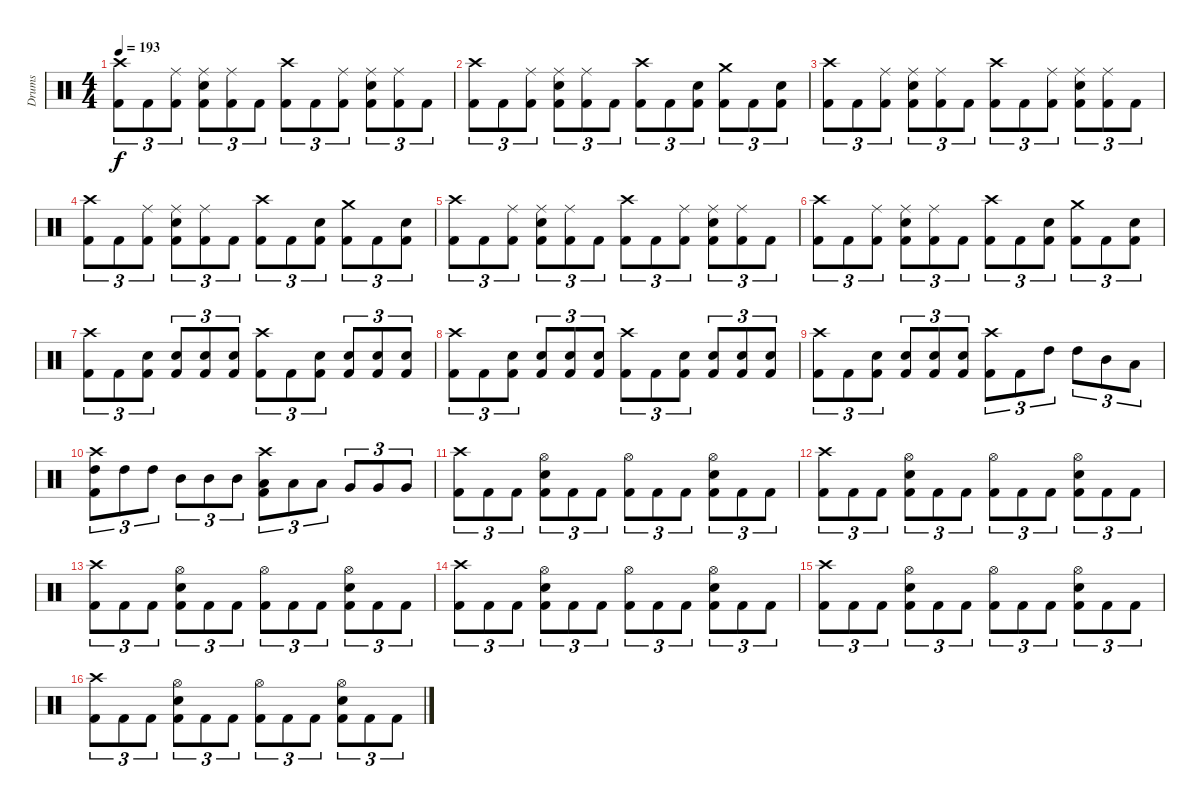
\track ("Drums" "Drums") {instrument percussion}
\staff {score}
\articulation defaults
\ts (4 4)
\tempo 193
\clef neutral
\ks c
("Crash high (hit)" "Kick (hit) 2").8{tu (3 2) dy f} "Kick (hit) 2".8{tu (3 2)} ("Ride (middle)" "Kick (hit) 2").8{tu (3 2)} ("Ride (middle)" "Electric Snare (hit)" "Kick (hit) 2").8{tu (3 2)} ("Ride (middle)" "Kick (hit) 2").8{tu (3 2)} "Kick (hit) 2".8{tu (3 2)} ("Crash high (hit)" "Kick (hit) 2").8{tu (3 2)} "Kick (hit) 2".8{tu (3 2)} ("Ride (middle)" "Kick (hit) 2").8{tu (3 2)} ("Ride (middle)" "Electric Snare (hit)" "Kick (hit) 2").8{tu (3 2)} ("Ride (middle)" "Kick (hit) 2").8{tu (3 2)} "Kick (hit) 2".8{tu (3 2)} |
("Crash high (hit)" "Kick (hit) 2").8{tu (3 2)} "Kick (hit) 2".8{tu (3 2)} ("Ride (middle)" "Kick (hit) 2").8{tu (3 2)} ("Ride (middle)" "Electric Snare (hit)" "Kick (hit) 2").8{tu (3 2)} ("Ride (middle)" "Kick (hit) 2").8{tu (3 2)} "Kick (hit) 2".8{tu (3 2)} ("Crash high (hit)" "Kick (hit) 2").8{tu (3 2)} "Kick (hit) 2".8{tu (3 2)} ("Electric Snare (hit)" "Kick (hit) 2").8{tu (3 2)} ("Crash medium (hit)" "Kick (hit) 2").8{tu (3 2)} "Kick (hit) 2".8{tu (3 2)} ("Electric Snare (hit)" "Kick (hit) 2").8{tu (3 2)} |
("Crash high (hit)" "Kick (hit) 2").8{tu (3 2)} "Kick (hit) 2".8{tu (3 2)} ("Ride (middle)" "Kick (hit) 2").8{tu (3 2)} ("Ride (middle)" "Electric Snare (hit)" "Kick (hit) 2").8{tu (3 2)} ("Ride (middle)" "Kick (hit) 2").8{tu (3 2)} "Kick (hit) 2".8{tu (3 2)} ("Crash high (hit)" "Kick (hit) 2").8{tu (3 2)} "Kick (hit) 2".8{tu (3 2)} ("Ride (middle)" "Kick (hit) 2").8{tu (3 2)} ("Ride (middle)" "Electric Snare (hit)" "Kick (hit) 2").8{tu (3 2)} ("Ride (middle)" "Kick (hit) 2").8{tu (3 2)} "Kick (hit) 2".8{tu (3 2)} |
("Crash high (hit)" "Kick (hit) 2").8{tu (3 2)} "Kick (hit) 2".8{tu (3 2)} ("Ride (middle)" "Kick (hit) 2").8{tu (3 2)} ("Ride (middle)" "Electric Snare (hit)" "Kick (hit) 2").8{tu (3 2)} ("Ride (middle)" "Kick (hit) 2").8{tu (3 2)} "Kick (hit) 2".8{tu (3 2)} ("Crash high (hit)" "Kick (hit) 2").8{tu (3 2)} "Kick (hit) 2".8{tu (3 2)} ("Electric Snare (hit)" "Kick (hit) 2").8{tu (3 2)} ("Crash medium (hit)" "Kick (hit) 2").8{tu (3 2)} "Kick (hit) 2".8{tu (3 2)} ("Electric Snare (hit)" "Kick (hit) 2").8{tu (3 2)} |
("Crash high (hit)" "Kick (hit) 2").8{tu (3 2)} "Kick (hit) 2".8{tu (3 2)} ("Ride (middle)" "Kick (hit) 2").8{tu (3 2)} ("Ride (middle)" "Electric Snare (hit)" "Kick (hit) 2").8{tu (3 2)} ("Ride (middle)" "Kick (hit) 2").8{tu (3 2)} "Kick (hit) 2".8{tu (3 2)} ("Crash high (hit)" "Kick (hit) 2").8{tu (3 2)} "Kick (hit) 2".8{tu (3 2)} ("Ride (middle)" "Kick (hit) 2").8{tu (3 2)} ("Ride (middle)" "Electric Snare (hit)" "Kick (hit) 2").8{tu (3 2)} ("Ride (middle)" "Kick (hit) 2").8{tu (3 2)} "Kick (hit) 2".8{tu (3 2)} |
("Crash high (hit)" "Kick (hit) 2").8{tu (3 2)} "Kick (hit) 2".8{tu (3 2)} ("Ride (middle)" "Kick (hit) 2").8{tu (3 2)} ("Ride (middle)" "Electric Snare (hit)" "Kick (hit) 2").8{tu (3 2)} ("Ride (middle)" "Kick (hit) 2").8{tu (3 2)} "Kick (hit) 2".8{tu (3 2)} ("Crash high (hit)" "Kick (hit) 2").8{tu (3 2)} "Kick (hit) 2".8{tu (3 2)} ("Electric Snare (hit)" "Kick (hit) 2").8{tu (3 2)} ("Crash medium (hit)" "Kick (hit) 2").8{tu (3 2)} "Kick (hit) 2".8{tu (3 2)} ("Electric Snare (hit)" "Kick (hit) 2").8{tu (3 2)} |
("Crash high (hit)" "Kick (hit) 2").8{tu (3 2)} "Kick (hit) 2".8{tu (3 2)} ("Electric Snare (hit)" "Kick (hit) 2").8{tu (3 2)} ("Electric Snare (hit)" "Kick (hit) 2").8{tu (3 2)} ("Electric Snare (hit)" "Kick (hit) 2").8{tu (3 2)} ("Electric Snare (hit)" "Kick (hit) 2").8{tu (3 2)} ("Crash high (hit)" "Kick (hit) 2").8{tu (3 2)} "Kick (hit) 2".8{tu (3 2)} ("Electric Snare (hit)" "Kick (hit) 2").8{tu (3 2)} ("Electric Snare (hit)" "Kick (hit) 2").8{tu (3 2)} ("Electric Snare (hit)" "Kick (hit) 2").8{tu (3 2)} ("Electric Snare (hit)" "Kick (hit) 2").8{tu (3 2)} |
("Crash high (hit)" "Kick (hit) 2").8{tu (3 2)} "Kick (hit) 2".8{tu (3 2)} ("Electric Snare (hit)" "Kick (hit) 2").8{tu (3 2)} ("Electric Snare (hit)" "Kick (hit) 2").8{tu (3 2)} ("Electric Snare (hit)" "Kick (hit) 2").8{tu (3 2)} ("Electric Snare (hit)" "Kick (hit) 2").8{tu (3 2)} ("Crash high (hit)" "Kick (hit) 2").8{tu (3 2)} "Kick (hit) 2".8{tu (3 2)} ("Electric Snare (hit)" "Kick (hit) 2").8{tu (3 2)} ("Electric Snare (hit)" "Kick (hit) 2").8{tu (3 2)} ("Electric Snare (hit)" "Kick (hit) 2").8{tu (3 2)} ("Electric Snare (hit)" "Kick (hit) 2").8{tu (3 2)} |
("Crash high (hit)" "Kick (hit) 2").8{tu (3 2)} "Kick (hit) 2".8{tu (3 2)} ("Electric Snare (hit)" "Kick (hit) 2").8{tu (3 2)} ("Electric Snare (hit)" "Kick (hit) 2").8{tu (3 2)} ("Electric Snare (hit)" "Kick (hit) 2").8{tu (3 2)} ("Electric Snare (hit)" "Kick (hit) 2").8{tu (3 2)} ("Crash high (hit)" "Kick (hit) 2").8{tu (3 2)} "Kick (hit) 2".8{tu (3 2)} "High Tom (hit)".8{tu (3 2)} "High Tom (hit)".8{tu (3 2)} "Mid Tom (hit)".8{tu (3 2)} "Low Tom (hit)".8{tu (3 2)} |
("Crash high (hit)" "High Tom (hit)" "Kick (hit) 2").8{tu (3 2)} "High Tom (hit)".8{tu (3 2)} "High Tom (hit)".8{tu (3 2)} "Mid Tom (hit)".8{tu (3 2)} "Mid Tom (hit)".8{tu (3 2)} "Mid Tom (hit)".8{tu (3 2)} ("Crash high (hit)" "Low Tom (hit)" "Kick (hit) 2").8{tu (3 2)} "Low Tom (hit)".8{tu (3 2)} "Low Tom (hit)".8{tu (3 2)} "Very Low Tom (hit)".8{tu (3 2)} "Very Low Tom (hit)".8{tu (3 2)} "Very Low Tom (hit)".8{tu (3 2)} |
("Crash high (hit)" "Kick (hit) 2").8{tu (3 2)} "Kick (hit) 2".8{tu (3 2)} "Kick (hit) 2".8{tu (3 2)} ("Hi-Hat (open)" "Electric Snare (hit)" "Kick (hit) 2").8{tu (3 2)} "Kick (hit) 2".8{tu (3 2)} "Kick (hit) 2".8{tu (3 2)} ("Hi-Hat (open)" "Kick (hit) 2").8{tu (3 2)} "Kick (hit) 2".8{tu (3 2)} "Kick (hit) 2".8{tu (3 2)} ("Hi-Hat (open)" "Electric Snare (hit)" "Kick (hit) 2").8{tu (3 2)} "Kick (hit) 2".8{tu (3 2)} "Kick (hit) 2".8{tu (3 2)} |
("Crash high (hit)" "Kick (hit) 2").8{tu (3 2)} "Kick (hit) 2".8{tu (3 2)} "Kick (hit) 2".8{tu (3 2)} ("Hi-Hat (open)" "Electric Snare (hit)" "Kick (hit) 2").8{tu (3 2)} "Kick (hit) 2".8{tu (3 2)} "Kick (hit) 2".8{tu (3 2)} ("Hi-Hat (open)" "Kick (hit) 2").8{tu (3 2)} "Kick (hit) 2".8{tu (3 2)} "Kick (hit) 2".8{tu (3 2)} ("Hi-Hat (open)" "Electric Snare (hit)" "Kick (hit) 2").8{tu (3 2)} "Kick (hit) 2".8{tu (3 2)} "Kick (hit) 2".8{tu (3 2)} |
("Crash high (hit)" "Kick (hit) 2").8{tu (3 2)} "Kick (hit) 2".8{tu (3 2)} "Kick (hit) 2".8{tu (3 2)} ("Hi-Hat (open)" "Electric Snare (hit)" "Kick (hit) 2").8{tu (3 2)} "Kick (hit) 2".8{tu (3 2)} "Kick (hit) 2".8{tu (3 2)} ("Hi-Hat (open)" "Kick (hit) 2").8{tu (3 2)} "Kick (hit) 2".8{tu (3 2)} "Kick (hit) 2".8{tu (3 2)} ("Hi-Hat (open)" "Electric Snare (hit)" "Kick (hit) 2").8{tu (3 2)} "Kick (hit) 2".8{tu (3 2)} "Kick (hit) 2".8{tu (3 2)} |
("Crash high (hit)" "Kick (hit) 2").8{tu (3 2)} "Kick (hit) 2".8{tu (3 2)} "Kick (hit) 2".8{tu (3 2)} ("Hi-Hat (open)" "Electric Snare (hit)" "Kick (hit) 2").8{tu (3 2)} "Kick (hit) 2".8{tu (3 2)} "Kick (hit) 2".8{tu (3 2)} ("Hi-Hat (open)" "Kick (hit) 2").8{tu (3 2)} "Kick (hit) 2".8{tu (3 2)} "Kick (hit) 2".8{tu (3 2)} ("Hi-Hat (open)" "Electric Snare (hit)" "Kick (hit) 2").8{tu (3 2)} "Kick (hit) 2".8{tu (3 2)} "Kick (hit) 2".8{tu (3 2)} |
("Crash high (hit)" "Kick (hit) 2").8{tu (3 2)} "Kick (hit) 2".8{tu (3 2)} "Kick (hit) 2".8{tu (3 2)} ("Hi-Hat (open)" "Electric Snare (hit)" "Kick (hit) 2").8{tu (3 2)} "Kick (hit) 2".8{tu (3 2)} "Kick (hit) 2".8{tu (3 2)} ("Hi-Hat (open)" "Kick (hit) 2").8{tu (3 2)} "Kick (hit) 2".8{tu (3 2)} "Kick (hit) 2".8{tu (3 2)} ("Hi-Hat (open)" "Electric Snare (hit)" "Kick (hit) 2").8{tu (3 2)} "Kick (hit) 2".8{tu (3 2)} "Kick (hit) 2".8{tu (3 2)} |
("Crash high (hit)" "Kick (hit) 2").8{tu (3 2)} "Kick (hit) 2".8{tu (3 2)} "Kick (hit) 2".8{tu (3 2)} ("Hi-Hat (open)" "Electric Snare (hit)" "Kick (hit) 2").8{tu (3 2)} "Kick (hit) 2".8{tu (3 2)} "Kick (hit) 2".8{tu (3 2)} ("Hi-Hat (open)" "Kick (hit) 2").8{tu (3 2)} "Kick (hit) 2".8{tu (3 2)} "Kick (hit) 2".8{tu (3 2)} ("Hi-Hat (open)" "Electric Snare (hit)" "Kick (hit) 2").8{tu (3 2)} "Kick (hit) 2".8{tu (3 2)} "Kick (hit) 2".8{tu (3 2)}
